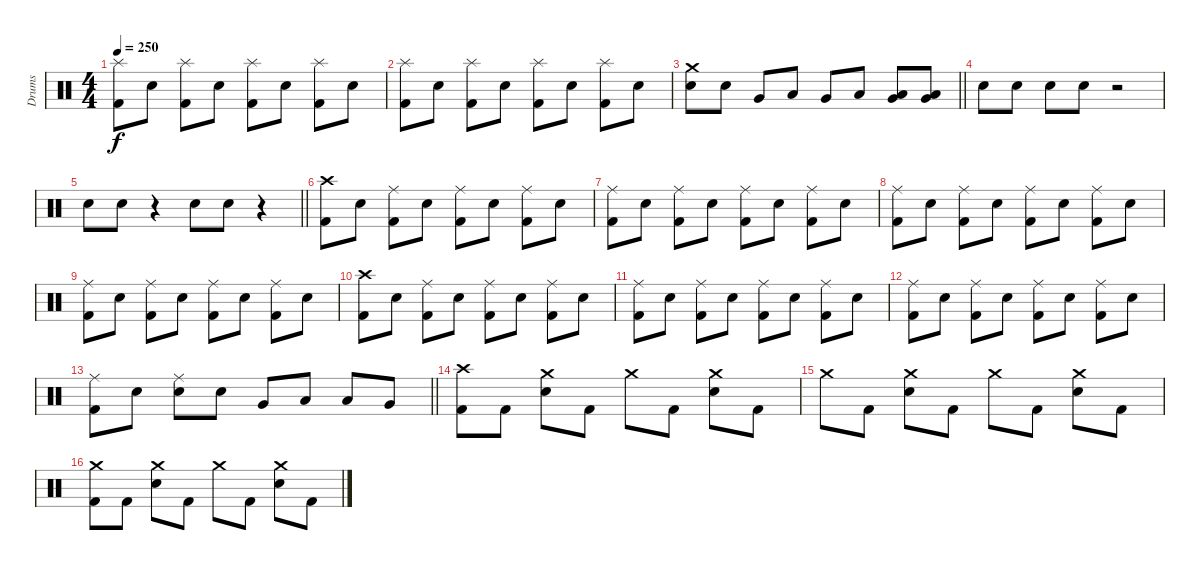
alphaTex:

\track ("Drums" "Drums") {instrument percussion}
\staff {score}
\articulation defaults
\ts (4 4)
\tempo 250
\clef neutral
\ks c
("Splash (hit)" "Kick (hit) 2").8{dy f} "Electric Snare (hit)".8 ("Splash (hit)" "Kick (hit) 2").8 "Electric Snare (hit)".8 ("Splash (hit)" "Kick (hit) 2").8 "Electric Snare (hit)".8 ("Splash (hit)" "Kick (hit) 2").8 "Electric Snare (hit)".8 |
("Splash (hit)" "Kick (hit) 2").8 "Electric Snare (hit)".8 ("Splash (hit)" "Kick (hit) 2").8 "Electric Snare (hit)".8 ("Splash (hit)" "Kick (hit) 2").8 "Electric Snare (hit)".8 ("Splash (hit)" "Kick (hit) 2").8 "Electric Snare (hit)".8 |
\barLineRight lightlight
("Crash medium (hit)" "Electric Snare (hit)").8 "Electric Snare (hit)".8 "Very Low Tom (hit)".8 "Low Floor Tom (hit)".8 "Very Low Tom (hit)".8 "Low Tom (hit)".8 ("Very Low Tom (hit)" "Low Tom (hit)").8 ("Low Floor Tom (hit)" "Very Low Tom (hit)").8 |
"Electric Snare (hit)".8 "Electric Snare (hit)".8 "Electric Snare (hit)".8 "Electric Snare (hit)".8 r.2 |
\barLineRight lightlight "Electric Snare (hit)".8 "Electric Snare (hit)".8
r.4 "Electric Snare (hit)".8 "Electric Snare (hit)".8 r.4 |
("Crash high (hit)" "Kick (hit) 2").8 "Electric Snare (hit)".8 ("Ride (middle)" "Kick (hit) 2").8 "Electric Snare (hit)".8 ("Ride (middle)" "Kick (hit) 2").8 "Electric Snare (hit)".8 ("Ride (middle)" "Kick (hit) 2").8 "Electric Snare (hit)".8 |
("Ride (middle)" "Kick (hit) 2").8 "Electric Snare (hit)".8 ("Ride (middle)" "Kick (hit) 2").8 "Electric Snare (hit)".8 ("Ride (middle)" "Kick (hit) 2").8 "Electric Snare (hit)".8 ("Ride (middle)" "Kick (hit) 2").8 "Electric Snare (hit)".8 |
("Ride (middle)" "Kick (hit) 2").8 "Electric Snare (hit)".8 ("Ride (middle)" "Kick (hit) 2").8 "Electric Snare (hit)".8 ("Ride (middle)" "Kick (hit) 2").8 "Electric Snare (hit)".8 ("Ride (middle)" "Kick (hit) 2").8 "Electric Snare (hit)".8 |
("Ride (middle)" "Kick (hit) 2").8 "Electric Snare (hit)".8 ("Ride (middle)" "Kick (hit) 2").8 "Electric Snare (hit)".8 ("Ride (middle)" "Kick (hit) 2").8 "Electric Snare (hit)".8 ("Ride (middle)" "Kick (hit) 2").8 "Electric Snare (hit)".8 |
("Crash high (hit)" "Kick (hit) 2").8 "Electric Snare (hit)".8 ("Ride (middle)" "Kick (hit) 2").8 "Electric Snare (hit)".8 ("Ride (middle)" "Kick (hit) 2").8 "Electric Snare (hit)".8 ("Ride (middle)" "Kick (hit) 2").8 "Electric Snare (hit)".8 |
("Ride (middle)" "Kick (hit) 2").8 "Electric Snare (hit)".8 ("Ride (middle)" "Kick (hit) 2").8 "Electric Snare (hit)".8 ("Ride (middle)" "Kick (hit) 2").8 "Electric Snare (hit)".8 ("Ride (middle)" "Kick (hit) 2").8 "Electric Snare (hit)".8 |
("Ride (middle)" "Kick (hit) 2").8 "Electric Snare (hit)".8 ("Ride (middle)" "Kick (hit) 2").8 "Electric Snare (hit)".8 ("Ride (middle)" "Kick (hit) 2").8 "Electric Snare (hit)".8 ("Ride (middle)" "Kick (hit) 2").8 "Electric Snare (hit)".8 |
\barLineRight lightlight
("Ride (middle)" "Kick (hit) 2").8 "Electric Snare (hit)".8 ("Ride (middle)" "Electric Snare (hit)").8 "Electric Snare (hit)".8 "Very Low Tom (hit)".8 "Low Floor Tom (hit)".8 "Low Tom (hit)".8 "Very Low Tom (hit)".8 |
("Crash high (hit)" "Kick (hit) 2").8 "Kick (hit) 2".8 ("Crash medium (hit)" "Electric Snare (hit)").8 "Kick (hit) 2".8 "Crash medium (hit)".8 "Kick (hit) 2".8 ("Crash medium (hit)" "Electric Snare (hit)").8 "Kick (hit) 2".8 |
"Crash medium (hit)".8 "Kick (hit) 2".8 ("Crash medium (hit)" "Electric Snare (hit)").8 "Kick (hit) 2".8 "Crash medium (hit)".8 "Kick (hit) 2".8 ("Crash medium (hit)" "Electric Snare (hit)").8 "Kick (hit) 2".8 |
("Crash medium (hit)" "Kick (hit) 2").8 "Kick (hit) 2".8 ("Crash medium (hit)" "Electric Snare (hit)").8 "Kick (hit) 2".8 "Crash medium (hit)".8 "Kick (hit) 2".8 ("Crash medium (hit)" "Electric Snare (hit)").8 "Kick (hit) 2".8
